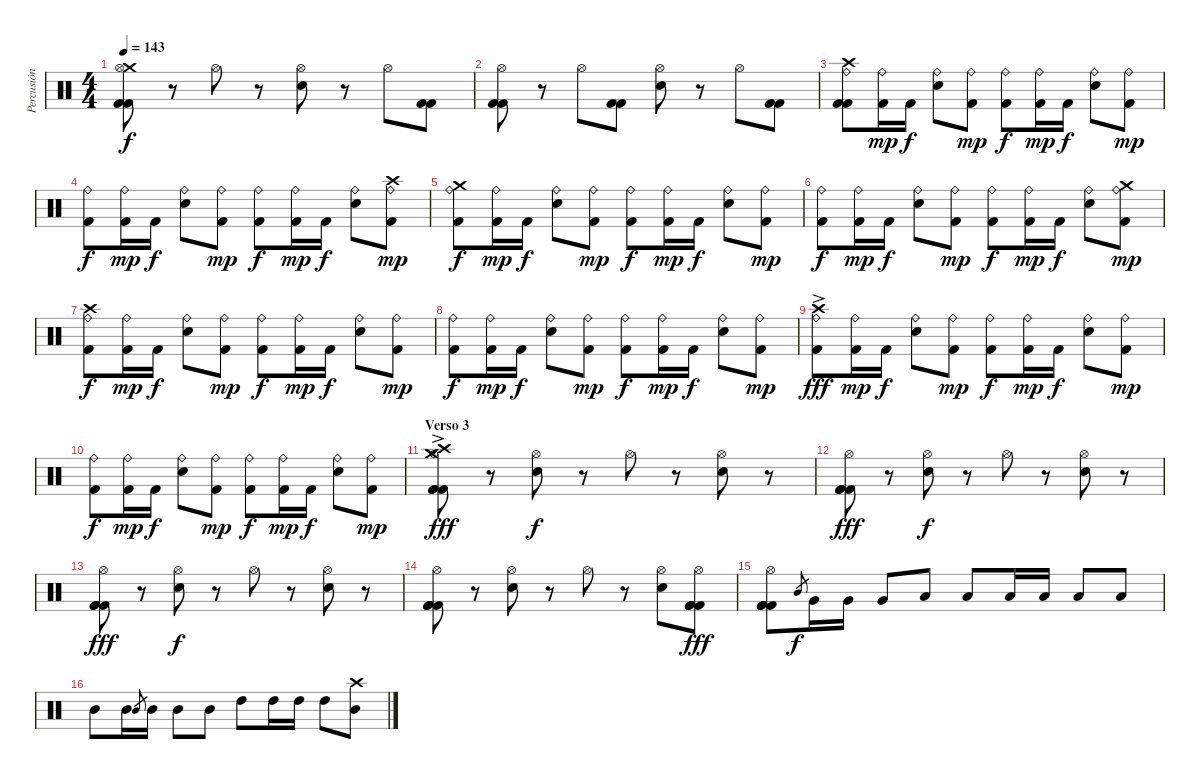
\track ("Percusión" "Percusión") {instrument percussion}
\staff {score}
\articulation defaults
\ts (4 4)
\tempo 143
\clef neutral
\ks c
("Crash medium (hit)" "Hi-Hat (open)" "Kick (hit) 2" "Kick (hit) 2").8{dy f} r.8 "Hi-Hat (open)".8 r.8 ("Hi-Hat (open)" "Electric Snare (hit)").8 r.8 "Hi-Hat (open)".8 ("Kick (hit) 2" "Kick (hit) 2").8 |
("Hi-Hat (open)" "Kick (hit) 2" "Kick (hit) 2").8 r.8 "Hi-Hat (open)".8 ("Kick (hit) 2" "Kick (hit) 2").8 ("Hi-Hat (open)" "Electric Snare (hit)").8 r.8 "Hi-Hat (open)".8 ("Kick (hit) 2" "Kick (hit) 2").8 |
("Crash high (hit)" "Ride (bell)" "Kick (hit) 2" "Kick (hit) 2").8 ("Ride (bell)" "Kick (hit) 2").16{dy mp} "Kick (hit) 2".16{dy f} ("Ride (bell)" "Electric Snare (hit)").8 ("Ride (bell)" "Kick (hit) 2").8{dy mp} ("Ride (bell)" "Kick (hit) 2").8{dy f} ("Ride (bell)" "Kick (hit) 2").16{dy mp} "Kick (hit) 2".16{dy f} ("Ride (bell)" "Electric Snare (hit)").8 ("Ride (bell)" "Kick (hit) 2").8{dy mp} |
("Ride (bell)" "Kick (hit) 2").8{dy f} ("Ride (bell)" "Kick (hit) 2").16{dy mp} "Kick (hit) 2".16{dy f} ("Ride (bell)" "Electric Snare (hit)").8 ("Ride (bell)" "Kick (hit) 2").8{dy mp} ("Ride (bell)" "Kick (hit) 2").8{dy f} ("Ride (bell)" "Kick (hit) 2").16{dy mp} "Kick (hit) 2".16{dy f} ("Ride (bell)" "Electric Snare (hit)").8 ("Crash high (hit)" "Ride (bell)" "Kick (hit) 2").8{dy mp} |
("Crash medium (hit)" "Ride (bell)" "Kick (hit) 2").8{dy f} ("Ride (bell)" "Kick (hit) 2").16{dy mp} "Kick (hit) 2".16{dy f} ("Ride (bell)" "Electric Snare (hit)").8 ("Ride (bell)" "Kick (hit) 2").8{dy mp} ("Ride (bell)" "Kick (hit) 2").8{dy f} ("Ride (bell)" "Kick (hit) 2").16{dy mp} "Kick (hit) 2".16{dy f} ("Ride (bell)" "Electric Snare (hit)").8 ("Ride (bell)" "Kick (hit) 2").8{dy mp} |
("Ride (bell)" "Kick (hit) 2").8{dy f} ("Ride (bell)" "Kick (hit) 2").16{dy mp} "Kick (hit) 2".16{dy f} ("Ride (bell)" "Electric Snare (hit)").8 ("Ride (bell)" "Kick (hit) 2").8{dy mp} ("Ride (bell)" "Kick (hit) 2").8{dy f} ("Ride (bell)" "Kick (hit) 2").16{dy mp} "Kick (hit) 2".16{dy f} ("Ride (bell)" "Electric Snare (hit)").8 ("Crash medium (hit)" "Ride (bell)" "Kick (hit) 2").8{dy mp} |
("Crash high (hit)" "Ride (bell)" "Kick (hit) 2").8{dy f} ("Ride (bell)" "Kick (hit) 2").16{dy mp} "Kick (hit) 2".16{dy f} ("Ride (bell)" "Electric Snare (hit)").8 ("Ride (bell)" "Kick (hit) 2").8{dy mp} ("Ride (bell)" "Kick (hit) 2").8{dy f} ("Ride (bell)" "Kick (hit) 2").16{dy mp} "Kick (hit) 2".16{dy f} ("Ride (bell)" "Electric Snare (hit)").8 ("Ride (bell)" "Kick (hit) 2").8{dy mp} |
("Ride (bell)" "Kick (hit) 2").8{dy f} ("Ride (bell)" "Kick (hit) 2").16{dy mp} "Kick (hit) 2".16{dy f} ("Ride (bell)" "Electric Snare (hit)").8 ("Ride (bell)" "Kick (hit) 2").8{dy mp} ("Ride (bell)" "Kick (hit) 2").8{dy f} ("Ride (bell)" "Kick (hit) 2").16{dy mp} "Kick (hit) 2".16{dy f} ("Ride (bell)" "Electric Snare (hit)").8 ("Ride (bell)" "Kick (hit) 2").8{dy mp} |
("Crash high (hit)"{ac} "Ride (bell)" "Kick (hit) 2").8{dy fff} ("Ride (bell)" "Kick (hit) 2").16{dy mp} "Kick (hit) 2".16{dy f} ("Ride (bell)" "Electric Snare (hit)").8 ("Ride (bell)" "Kick (hit) 2").8{dy mp} ("Ride (bell)" "Kick (hit) 2").8{dy f} ("Ride (bell)" "Kick (hit) 2").16{dy mp} "Kick (hit) 2".16{dy f} ("Ride (bell)" "Electric Snare (hit)").8 ("Ride (bell)" "Kick (hit) 2").8{dy mp} |
("Ride (bell)" "Kick (hit) 2").8{dy f} ("Ride (bell)" "Kick (hit) 2").16{dy mp} "Kick (hit) 2".16{dy f} ("Ride (bell)" "Electric Snare (hit)").8 ("Ride (bell)" "Kick (hit) 2").8{dy mp} ("Ride (bell)" "Kick (hit) 2").8{dy f} ("Ride (bell)" "Kick (hit) 2").16{dy mp} "Kick (hit) 2".16{dy f} ("Ride (bell)" "Electric Snare (hit)").8 ("Ride (bell)" "Kick (hit) 2").8{dy mp} |
\section ("" "Verso 3")
("Crash high (hit)" "Crash medium (hit)"{ac} "Hi-Hat (open)" "Kick (hit) 2" "Kick (hit) 2" "Kick (hit) 2").8{dy fff} r.8 ("Hi-Hat (open)" "Electric Snare (hit)").8{dy f} r.8 "Hi-Hat (open)".8 r.8 ("Hi-Hat (open)" "Electric Snare (hit)").8 r.8 |
("Hi-Hat (open)" "Kick (hit) 2" "Kick (hit) 2" "Kick (hit) 2").8{dy fff} r.8 ("Hi-Hat (open)" "Electric Snare (hit)").8{dy f} r.8 "Hi-Hat (open)".8 r.8 ("Hi-Hat (open)" "Electric Snare (hit)").8 r.8 |
("Hi-Hat (open)" "Kick (hit) 2" "Kick (hit) 2" "Kick (hit) 2").8{dy fff} r.8 ("Hi-Hat (open)" "Electric Snare (hit)").8{dy f} r.8 "Hi-Hat (open)".8 r.8 ("Hi-Hat (open)" "Electric Snare (hit)").8 r.8 |
("Hi-Hat (open)" "Kick (hit) 2" "Kick (hit) 2" "Kick (hit) 2").8 r.8 ("Hi-Hat (open)" "Electric Snare (hit)").8 r.8 "Hi-Hat (open)".8 r.8 ("Hi-Hat (open)" "Electric Snare (hit)").8 ("Hi-Hat (open)" "Kick (hit) 2" "Kick (hit) 2" "Kick (hit) 2").8{dy fff} |
("Hi-Hat (open)" "Kick (hit) 2" "Kick (hit) 2" "Kick (hit) 2").8 "Mid Tom (hit)".8{gr dy f} "Very Low Tom (hit)".16 "Very Low Tom (hit)".16 "Very Low Tom (hit)".8 "Low Tom (hit)".8 "Low Tom (hit)".8 "Low Tom (hit)".16 "Low Tom (hit)".16 "Low Tom (hit)".8 "Low Tom (hit)".8 |
"Mid Tom (hit)".8 "Mid Tom (hit)".16 "Mid Tom (hit)".8{gr} "Mid Tom (hit)".16 "Mid Tom (hit)".8 "Mid Tom (hit)".8 "High Tom (hit)".8 "High Tom (hit)".16 "High Tom (hit)".16 "High Tom (hit)".8 ("Crash high (hit)" "Mid Tom (hit)").8
